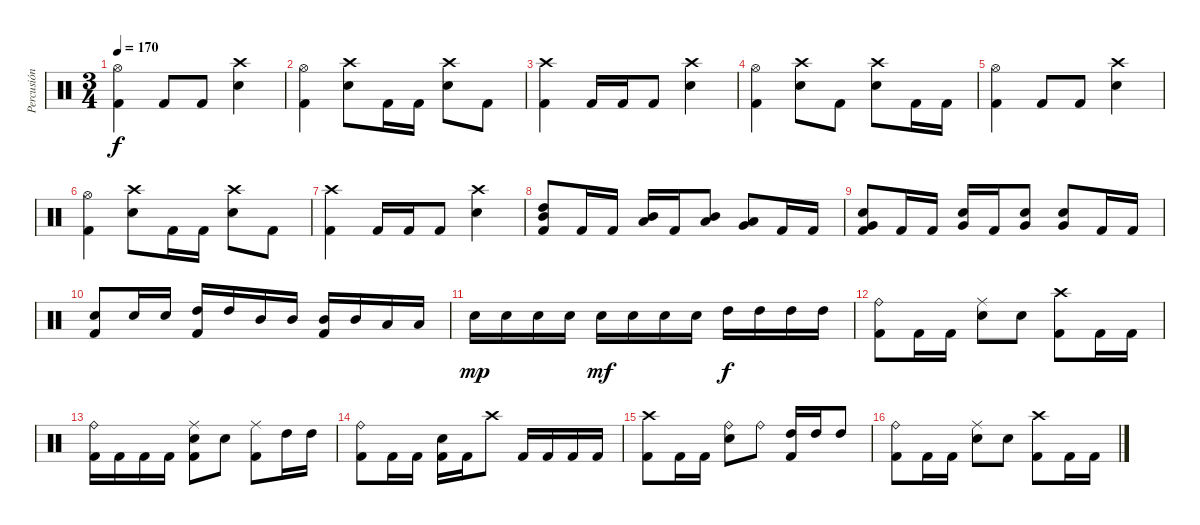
\track ("Percusión" "Percusión") {instrument percussion}
\staff {score}
\articulation defaults
\ts (3 4)
\tempo 170
\clef neutral
\ks c
("Hi-Hat (open)" "Kick (hit) 2").4{dy f} "Kick (hit) 2".8 "Kick (hit) 2".8 ("Crash high (hit)" "Snare (hit) 2").4 |
("Hi-Hat (open)" "Kick (hit) 2").4 ("Crash high (hit)" "Snare (hit) 2").8 "Kick (hit) 2".16 "Kick (hit) 2".16 ("Crash high (hit)" "Snare (hit) 2").8 "Kick (hit) 2".8 |
("Crash high (hit)" "Kick (hit) 2").4 "Kick (hit) 2".16 "Kick (hit) 2".16 "Kick (hit) 2".8 ("Crash high (hit)" "Snare (hit) 2").4 |
("Hi-Hat (open)" "Kick (hit) 2").4 ("Crash high (hit)" "Snare (hit) 2").8 "Kick (hit) 2".8 ("Crash high (hit)" "Snare (hit) 2").8 "Kick (hit) 2".16 "Kick (hit) 2".16 |
("Hi-Hat (open)" "Kick (hit) 2").4 "Kick (hit) 2".8 "Kick (hit) 2".8 ("Crash high (hit)" "Snare (hit) 2").4 |
("Hi-Hat (open)" "Kick (hit) 2").4 ("Crash high (hit)" "Snare (hit) 2").8 "Kick (hit) 2".16 "Kick (hit) 2".16 ("Crash high (hit)" "Snare (hit) 2").8 "Kick (hit) 2".8 |
("Crash high (hit)" "Kick (hit) 2").4 "Kick (hit) 2".16 "Kick (hit) 2".16 "Kick (hit) 2".8 ("Crash high (hit)" "Snare (hit) 2").4 |
("High Tom (hit)" "Mid Tom (hit)" "Kick (hit) 2").8 "Kick (hit) 2".16 "Kick (hit) 2".16 ("Mid Tom (hit)" "Low Tom (hit)").16 "Kick (hit) 2".16 ("Mid Tom (hit)" "Low Tom (hit)").8 ("Low Tom (hit)" "Very Low Tom (hit)").8 "Kick (hit) 2".16 "Kick (hit) 2".16 |
("Snare (hit) 2" "Very Low Tom (hit)" "Kick (hit) 2").8 "Kick (hit) 2".16 "Kick (hit) 2".16 ("Snare (hit) 2" "Very Low Tom (hit)").16 "Kick (hit) 2".16 ("Snare (hit) 2" "Very Low Tom (hit)").8 ("Snare (hit) 2" "Very Low Tom (hit)").8 "Kick (hit) 2".16 "Kick (hit) 2".16 |
("Snare (hit) 2" "Kick (hit) 2").8 "Snare (hit) 2".16 "Snare (hit) 2".16 ("High Tom (hit)" "Kick (hit) 2").16 "High Tom (hit)".16 "Mid Tom (hit)".16 "Mid Tom (hit)".16 ("Mid Tom (hit)" "Kick (hit) 2").16 "Mid Tom (hit)".16 "Low Tom (hit)".16 "Low Tom (hit)".16 |
"Snare (hit) 2".16{dy mp} "Snare (hit) 2".16 "Snare (hit) 2".16 "Snare (hit) 2".16 "Snare (hit) 2".16{dy mf} "Snare (hit) 2".16 "Snare (hit) 2".16 "Snare (hit) 2".16 "High Tom (hit)".16{dy f} "High Tom (hit)".16 "High Tom (hit)".16 "High Tom (hit)".16 |
("Ride (bell)" "Kick (hit) 2").8 "Kick (hit) 2".16 "Kick (hit) 2".16 ("Ride (middle)" "Snare (hit) 2").8 "Snare (hit) 2".8 ("Crash high (hit)" "Kick (hit) 2").8 "Kick (hit) 2".16 "Kick (hit) 2".16 |
("Ride (bell)" "Kick (hit) 2").16 "Kick (hit) 2".16 "Kick (hit) 2".16 "Kick (hit) 2".16 ("Ride (middle)" "Snare (hit) 2" "Kick (hit) 2").8 "Snare (hit) 2".8 ("Ride (middle)" "Kick (hit) 2").8 "High Tom (hit)".16 "High Tom (hit)".16 |
("Ride (bell)" "Kick (hit) 2").8 "Kick (hit) 2".16 "Kick (hit) 2".16 ("Snare (hit) 2" "Kick (hit) 2").16 "Kick (hit) 2".16 "Crash high (hit)".8 "Kick (hit) 2".16 "Kick (hit) 2".16 "Kick (hit) 2".16 "Kick (hit) 2".16 |
("Crash high (hit)" "Kick (hit) 2").8 "Kick (hit) 2".16 "Kick (hit) 2".16 ("Ride (bell)" "Snare (hit) 2").8 "Ride (bell)".8 ("High Tom (hit)" "Kick (hit) 2").16 "High Tom (hit)".16 "High Tom (hit)".8 |
("Ride (bell)" "Kick (hit) 2").8 "Kick (hit) 2".16 "Kick (hit) 2".16 ("Ride (middle)" "Snare (hit) 2").8 "Snare (hit) 2".8 ("Crash high (hit)" "Kick (hit) 2").8 "Kick (hit) 2".16 "Kick (hit) 2".16
